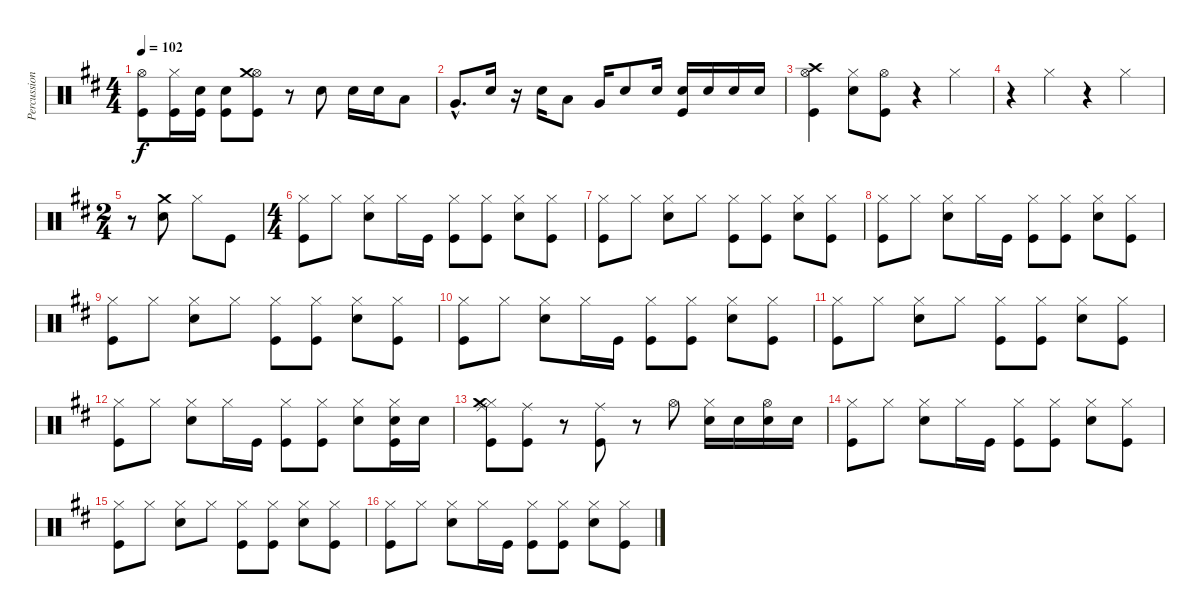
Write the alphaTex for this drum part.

\track ("Percussion" "Percussion") {instrument percussion}
\staff {score}
\articulation defaults
\ts (4 4)
\tempo 102
\clef neutral
\ks d
("Hi-Hat (open)" "Kick (hit)").8{dy f} ("Hi-Hat (closed)" "Kick (hit)").16 ("Snare (hit) 2" "Kick (hit)").16 ("Snare (hit) 2" "Kick (hit)").8 ("Hi-Hat (open)" "Crash medium (hit)" "Kick (hit)").8 r.8 "Snare (hit) 2".8 "Snare (hit) 2".16 "Snare (hit) 2".16 "Low Tom (hit)".8 |
"Very Low Tom (hit)"{hac}.8{d} "Snare (hit) 2".16 r.16 "Snare (hit) 2".16 "Low Floor Tom (hit)".8 "Very Low Tom (hit)".16 "Snare (hit) 2".8 "Snare (hit) 2".16 ("Snare (hit) 2" "Kick (hit)").16 "Snare (hit) 2".16 "Snare (hit) 2".16 "Snare (hit) 2".16 |
("Hi-Hat (open)" "Crash high (hit)" "Kick (hit)").4 ("Hi-Hat (closed)" "Snare (hit) 2").8 ("Hi-Hat (open)" "Kick (hit)").8 r.4 "Hi-Hat (closed)".4 |
r.4 "Hi-Hat (closed)".4 r.4 "Hi-Hat (closed)".4 |
\ts (2 4)
r.8 ("Crash medium (hit)" "Snare (hit) 2").8 "Hi-Hat (closed)".8 "Kick (hit)".8 |
\ts (4 4)
("Hi-Hat (closed)" "Kick (hit)").8 "Hi-Hat (closed)".8 ("Hi-Hat (closed)" "Snare (hit) 2").8 "Hi-Hat (closed)".16 "Kick (hit)".16 ("Hi-Hat (closed)" "Kick (hit)").8 ("Hi-Hat (closed)" "Kick (hit)").8 ("Hi-Hat (closed)" "Snare (hit) 2").8 ("Hi-Hat (closed)" "Kick (hit)").8 |
("Hi-Hat (closed)" "Kick (hit)").8 "Hi-Hat (closed)".8 ("Hi-Hat (closed)" "Snare (hit) 2").8 "Hi-Hat (closed)".8 ("Hi-Hat (closed)" "Kick (hit)").8 ("Hi-Hat (closed)" "Kick (hit)").8 ("Hi-Hat (closed)" "Snare (hit) 2").8 ("Hi-Hat (closed)" "Kick (hit)").8 |
("Hi-Hat (closed)" "Kick (hit)").8 "Hi-Hat (closed)".8 ("Hi-Hat (closed)" "Snare (hit) 2").8 "Hi-Hat (closed)".16 "Kick (hit)".16 ("Hi-Hat (closed)" "Kick (hit)").8 ("Hi-Hat (closed)" "Kick (hit)").8 ("Hi-Hat (closed)" "Snare (hit) 2").8 ("Hi-Hat (closed)" "Kick (hit)").8 |
("Hi-Hat (closed)" "Kick (hit)").8 "Hi-Hat (closed)".8 ("Hi-Hat (closed)" "Snare (hit) 2").8 "Hi-Hat (closed)".8 ("Hi-Hat (closed)" "Kick (hit)").8 ("Hi-Hat (closed)" "Kick (hit)").8 ("Hi-Hat (closed)" "Snare (hit) 2").8 ("Hi-Hat (closed)" "Kick (hit)").8 |
("Hi-Hat (closed)" "Kick (hit)").8 "Hi-Hat (closed)".8 ("Hi-Hat (closed)" "Snare (hit) 2").8 "Hi-Hat (closed)".16 "Kick (hit)".16 ("Hi-Hat (closed)" "Kick (hit)").8 ("Hi-Hat (closed)" "Kick (hit)").8 ("Hi-Hat (closed)" "Snare (hit) 2").8 ("Hi-Hat (closed)" "Kick (hit)").8 |
("Hi-Hat (closed)" "Kick (hit)").8 "Hi-Hat (closed)".8 ("Hi-Hat (closed)" "Snare (hit) 2").8 "Hi-Hat (closed)".8 ("Hi-Hat (closed)" "Kick (hit)").8 ("Hi-Hat (closed)" "Kick (hit)").8 ("Hi-Hat (closed)" "Snare (hit) 2").8 ("Hi-Hat (closed)" "Kick (hit)").8 |
("Hi-Hat (closed)" "Kick (hit)").8 "Hi-Hat (closed)".8 ("Hi-Hat (closed)" "Snare (hit) 2").8 "Hi-Hat (closed)".16 "Kick (hit)".16 ("Hi-Hat (closed)" "Kick (hit)").8 ("Hi-Hat (closed)" "Kick (hit)").8 ("Hi-Hat (closed)" "Snare (hit) 2").8 ("Hi-Hat (closed)" "Snare (hit) 2" "Kick (hit)").16 "Snare (hit) 2".16 |
("Hi-Hat (closed)" "Crash medium (hit)" "Ride (middle)" "Kick (hit)").8 ("Ride (middle)" "Kick (hit)").8 r.8 ("Ride (middle)" "Kick (hit)").8 r.8 "Hi-Hat (open)".8 ("Hi-Hat (closed)" "Snare (hit) 2").16 "Snare (hit) 2".16 ("Hi-Hat (open)" "Snare (hit) 2").16 "Snare (hit) 2".16 |
("Hi-Hat (closed)" "Kick (hit)").8 "Hi-Hat (closed)".8 ("Hi-Hat (closed)" "Snare (hit) 2").8 "Hi-Hat (closed)".16 "Kick (hit)".16 ("Hi-Hat (closed)" "Kick (hit)").8 ("Hi-Hat (closed)" "Kick (hit)").8 ("Hi-Hat (closed)" "Snare (hit) 2").8 ("Hi-Hat (closed)" "Kick (hit)").8 |
("Hi-Hat (closed)" "Kick (hit)").8 "Hi-Hat (closed)".8 ("Hi-Hat (closed)" "Snare (hit) 2").8 "Hi-Hat (closed)".8 ("Hi-Hat (closed)" "Kick (hit)").8 ("Hi-Hat (closed)" "Kick (hit)").8 ("Hi-Hat (closed)" "Snare (hit) 2").8 ("Hi-Hat (closed)" "Kick (hit)").8 |
("Hi-Hat (closed)" "Kick (hit)").8 "Hi-Hat (closed)".8 ("Hi-Hat (closed)" "Snare (hit) 2").8 "Hi-Hat (closed)".16 "Kick (hit)".16 ("Hi-Hat (closed)" "Kick (hit)").8 ("Hi-Hat (closed)" "Kick (hit)").8 ("Hi-Hat (closed)" "Snare (hit) 2").8 ("Hi-Hat (closed)" "Kick (hit)").8
